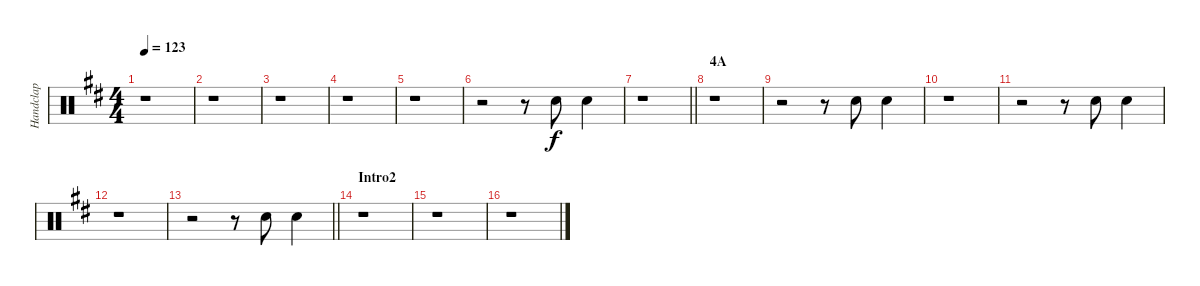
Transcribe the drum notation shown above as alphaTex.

\track ("Handclap" "Handclap") {instrument percussion}
\staff {score}
\articulation defaults
\ts (4 4)
\tempo 123
\clef neutral
\ks d
r.1{dy f} |
r.1 |
r.1 |
r.1 |
r.1 |
r.2 r.8 "Hand Clap (hit)".8 "Hand Clap (hit)".4 |
\barLineRight lightlight
r.1 |
\section ("" "4A")
r.1 |
r.2 r.8 "Hand Clap (hit)".8 "Hand Clap (hit)".4 |
r.1 |
r.2 r.8 "Hand Clap (hit)".8 "Hand Clap (hit)".4 |
r.1 |
\barLineRight lightlight
r.2 r.8 "Hand Clap (hit)".8 "Hand Clap (hit)".4 |
\section ("" "Intro2")
r.1 |
r.1 |
r.1
